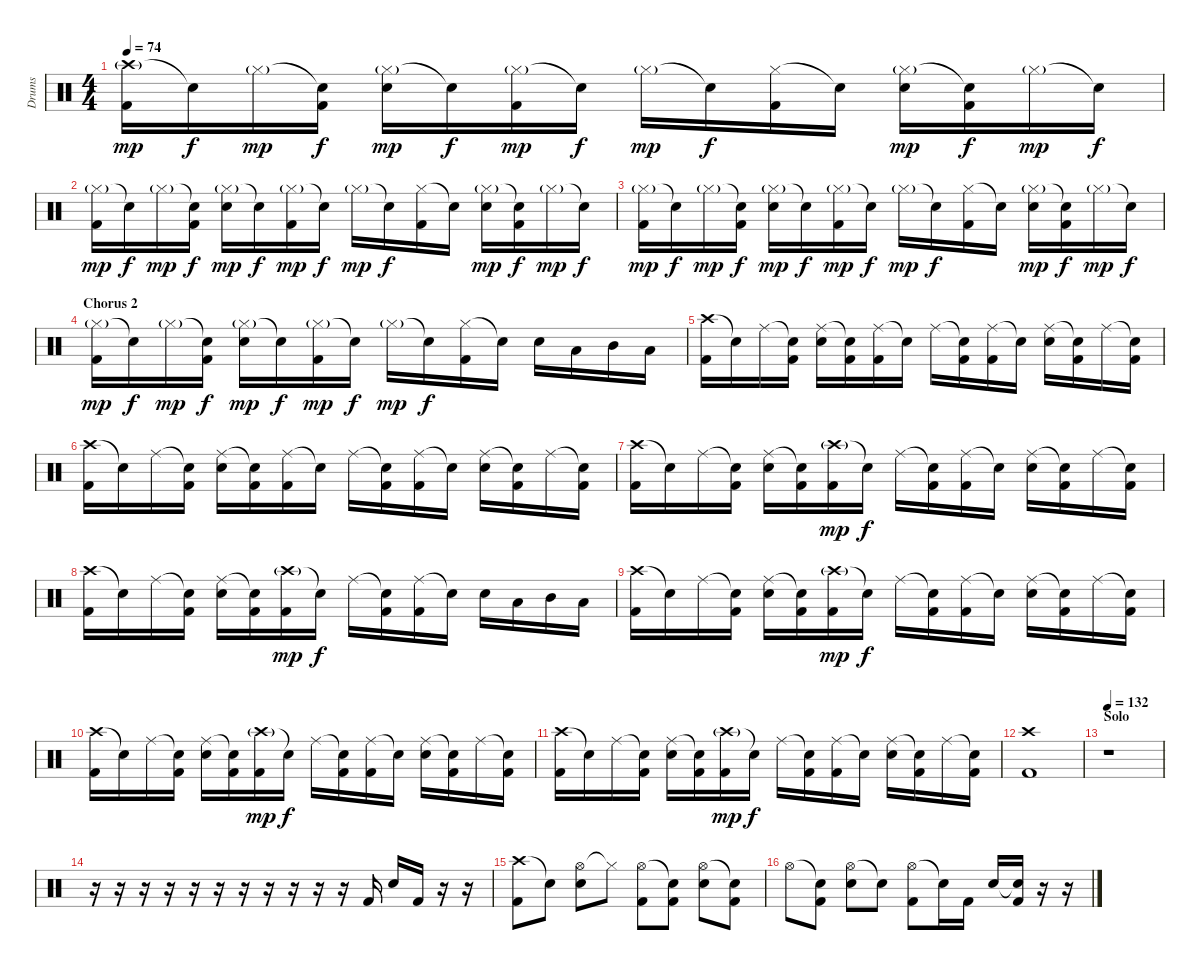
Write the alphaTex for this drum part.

\track ("Drums" "Drums") {instrument percussion}
\staff {score}
\articulation defaults
\ts (4 4)
\tempo 74
\clef neutral
\ks c
("Crash high (hit)"{g} "Kick (hit) 2").16{dy mp} "Snare (hit)"{t}.16{dy f} "Hi-Hat (closed)"{g}.16{dy mp} ("Snare (hit)"{t} "Kick (hit) 2").16{dy f} ("Hi-Hat (closed)"{g} "Electric Snare (hit)").16{dy mp} "Snare (hit)"{t}.16{dy f} ("Hi-Hat (closed)"{g} "Kick (hit) 2").16{dy mp} "Snare (hit)"{t}.16{dy f} "Hi-Hat (closed)"{g}.16{dy mp} "Snare (hit)"{t}.16{dy f} ("Hi-Hat (closed)" "Kick (hit) 2").16 "Snare (hit)"{t}.16 ("Hi-Hat (closed)"{g} "Electric Snare (hit)").16{dy mp} ("Snare (hit)"{t} "Kick (hit) 2").16{dy f} "Hi-Hat (closed)"{g}.16{dy mp} "Snare (hit)"{t}.16{dy f} |
("Hi-Hat (closed)"{g} "Kick (hit) 2").16{dy mp} "Snare (hit)"{t}.16{dy f} "Hi-Hat (closed)"{g}.16{dy mp} ("Snare (hit)"{t} "Kick (hit) 2").16{dy f} ("Hi-Hat (closed)"{g} "Electric Snare (hit)").16{dy mp} "Snare (hit)"{t}.16{dy f} ("Hi-Hat (closed)"{g} "Kick (hit) 2").16{dy mp} "Snare (hit)"{t}.16{dy f} "Hi-Hat (closed)"{g}.16{dy mp} "Snare (hit)"{t}.16{dy f} ("Hi-Hat (closed)" "Kick (hit) 2").16 "Snare (hit)"{t}.16 ("Hi-Hat (closed)"{g} "Electric Snare (hit)").16{dy mp} ("Snare (hit)"{t} "Kick (hit) 2").16{dy f} "Hi-Hat (closed)"{g}.16{dy mp} "Snare (hit)"{t}.16{dy f} |
("Hi-Hat (closed)"{g} "Kick (hit) 2").16{dy mp} "Snare (hit)"{t}.16{dy f} "Hi-Hat (closed)"{g}.16{dy mp} ("Snare (hit)"{t} "Kick (hit) 2").16{dy f} ("Hi-Hat (closed)"{g} "Electric Snare (hit)").16{dy mp} "Snare (hit)"{t}.16{dy f} ("Hi-Hat (closed)"{g} "Kick (hit) 2").16{dy mp} "Snare (hit)"{t}.16{dy f} "Hi-Hat (closed)"{g}.16{dy mp} "Snare (hit)"{t}.16{dy f} ("Hi-Hat (closed)" "Kick (hit) 2").16 "Snare (hit)"{t}.16 ("Hi-Hat (closed)"{g} "Electric Snare (hit)").16{dy mp} ("Snare (hit)"{t} "Kick (hit) 2").16{dy f} "Hi-Hat (closed)"{g}.16{dy mp} "Snare (hit)"{t}.16{dy f} |
\section ("" "Chorus 2")
("Hi-Hat (closed)"{g} "Kick (hit) 2").16{dy mp} "Snare (hit)"{t}.16{dy f} "Hi-Hat (closed)"{g}.16{dy mp} ("Snare (hit)"{t} "Kick (hit) 2").16{dy f} ("Hi-Hat (closed)"{g} "Electric Snare (hit)").16{dy mp} "Snare (hit)"{t}.16{dy f} ("Hi-Hat (closed)"{g} "Kick (hit) 2").16{dy mp} "Snare (hit)"{t}.16{dy f} "Hi-Hat (closed)"{g}.16{dy mp} "Snare (hit)"{t}.16{dy f} ("Hi-Hat (closed)" "Kick (hit) 2").16 "Snare (hit)"{t}.16 "Electric Snare (hit)".16 "Low Tom (hit)".16 "Mid Tom (hit)".16 "Low Floor Tom (hit)".16 |
("Crash high (hit)" "Kick (hit) 2").16 "Snare (hit)"{t}.16 "Ride (middle)".16 ("Snare (hit)"{t} "Kick (hit) 2").16 ("Ride (middle)" "Electric Snare (hit)").16 ("Snare (hit)"{t} "Kick (hit) 2").16 ("Ride (middle)" "Kick (hit) 2").16 "Snare (hit)"{t}.16 "Ride (middle)".16 ("Snare (hit)"{t} "Kick (hit) 2").16 ("Ride (middle)" "Kick (hit) 2").16 "Snare (hit)"{t}.16 ("Ride (middle)" "Electric Snare (hit)").16 ("Snare (hit)"{t} "Kick (hit) 2").16 "Ride (middle)".16 ("Snare (hit)"{t} "Kick (hit) 2").16 |
("Crash high (hit)" "Kick (hit) 2").16 "Snare (hit)"{t}.16 "Ride (middle)".16 ("Snare (hit)"{t} "Kick (hit) 2").16 ("Ride (middle)" "Electric Snare (hit)").16 ("Snare (hit)"{t} "Kick (hit) 2").16 ("Ride (middle)" "Kick (hit) 2").16 "Snare (hit)"{t}.16 "Ride (middle)".16 ("Snare (hit)"{t} "Kick (hit) 2").16 ("Ride (middle)" "Kick (hit) 2").16 "Snare (hit)"{t}.16 ("Ride (middle)" "Electric Snare (hit)").16 ("Snare (hit)"{t} "Kick (hit) 2").16 "Ride (middle)".16 ("Snare (hit)"{t} "Kick (hit) 2").16 |
("Crash high (hit)" "Kick (hit) 2").16 "Snare (hit)"{t}.16 "Ride (middle)".16 ("Snare (hit)"{t} "Kick (hit) 2").16 ("Ride (middle)" "Electric Snare (hit)").16 ("Snare (hit)"{t} "Kick (hit) 2").16 ("Crash high (hit)"{g} "Kick (hit) 2").16{dy mp} "Snare (hit)"{t}.16{dy f} "Ride (middle)".16 ("Snare (hit)"{t} "Kick (hit) 2").16 ("Ride (middle)" "Kick (hit) 2").16 "Snare (hit)"{t}.16 ("Ride (middle)" "Electric Snare (hit)").16 ("Snare (hit)"{t} "Kick (hit) 2").16 "Ride (middle)".16 ("Snare (hit)"{t} "Kick (hit) 2").16 |
("Crash high (hit)" "Kick (hit) 2").16 "Snare (hit)"{t}.16 "Ride (middle)".16 ("Snare (hit)"{t} "Kick (hit) 2").16 ("Ride (middle)" "Electric Snare (hit)").16 ("Snare (hit)"{t} "Kick (hit) 2").16 ("Crash high (hit)"{g} "Kick (hit) 2").16{dy mp} "Snare (hit)"{t}.16{dy f} "Ride (middle)".16 ("Snare (hit)"{t} "Kick (hit) 2").16 ("Ride (middle)" "Kick (hit) 2").16 "Snare (hit)"{t}.16 "Electric Snare (hit)".16 "Low Tom (hit)".16 "Mid Tom (hit)".16 "Low Floor Tom (hit)".16 |
("Crash high (hit)" "Kick (hit) 2").16 "Snare (hit)"{t}.16 "Ride (middle)".16 ("Snare (hit)"{t} "Kick (hit) 2").16 ("Ride (middle)" "Electric Snare (hit)").16 ("Snare (hit)"{t} "Kick (hit) 2").16 ("Crash high (hit)"{g} "Kick (hit) 2").16{dy mp} "Snare (hit)"{t}.16{dy f} "Ride (middle)".16 ("Snare (hit)"{t} "Kick (hit) 2").16 ("Ride (middle)" "Kick (hit) 2").16 "Snare (hit)"{t}.16 ("Ride (middle)" "Electric Snare (hit)").16 ("Snare (hit)"{t} "Kick (hit) 2").16 "Ride (middle)".16 ("Snare (hit)"{t} "Kick (hit) 2").16 |
("Crash high (hit)" "Kick (hit) 2").16 "Snare (hit)"{t}.16 "Ride (middle)".16 ("Snare (hit)"{t} "Kick (hit) 2").16 ("Ride (middle)" "Electric Snare (hit)").16 ("Snare (hit)"{t} "Kick (hit) 2").16 ("Crash high (hit)"{g} "Kick (hit) 2").16{dy mp} "Snare (hit)"{t}.16{dy f} "Ride (middle)".16 ("Snare (hit)"{t} "Kick (hit) 2").16 ("Ride (middle)" "Kick (hit) 2").16 "Snare (hit)"{t}.16 ("Ride (middle)" "Electric Snare (hit)").16 ("Snare (hit)"{t} "Kick (hit) 2").16 "Ride (middle)".16 ("Snare (hit)"{t} "Kick (hit) 2").16 |
("Crash high (hit)" "Kick (hit) 2").16 "Snare (hit)"{t}.16 "Ride (middle)".16 ("Snare (hit)"{t} "Kick (hit) 2").16 ("Ride (middle)" "Electric Snare (hit)").16 ("Snare (hit)"{t} "Kick (hit) 2").16 ("Crash high (hit)"{g} "Kick (hit) 2").16{dy mp} "Snare (hit)"{t}.16{dy f} "Ride (middle)".16 ("Snare (hit)"{t} "Kick (hit) 2").16 ("Ride (middle)" "Kick (hit) 2").16 "Snare (hit)"{t}.16 ("Ride (middle)" "Electric Snare (hit)").16 ("Snare (hit)"{t} "Kick (hit) 2").16 "Ride (middle)".16 ("Snare (hit)"{t} "Kick (hit) 2").16 |
("Crash high (hit)" "Kick (hit) 2").1 |
\section ("" "Solo")
\tempo 132
r.1 |
r.16 r.16 r.16 r.16 r.16 r.16 r.16 r.16 r.16 r.16 r.16 "Kick (hit) 2".16 "Electric Snare (hit)".16 "Kick (hit) 2".16 r.16 r.16 |
("Crash high (hit)" "Kick (hit) 2").8 "Snare (hit)"{t}.8 ("Hi-Hat (open)" "Electric Snare (hit)").8 "Hi-Hat (closed)"{t}.8 ("Hi-Hat (open)" "Kick (hit) 2").8 ("Snare (hit)"{t} "Kick (hit) 2").8 ("Hi-Hat (open)" "Electric Snare (hit)").8 ("Snare (hit)"{t} "Kick (hit) 2").8 |
"Hi-Hat (open)".8 ("Snare (hit)"{t} "Kick (hit) 2").8 ("Hi-Hat (open)" "Electric Snare (hit)").8 "Snare (hit)"{t}.8 ("Hi-Hat (open)" "Kick (hit) 2").8 "Snare (hit)"{t}.16 "Kick (hit) 2".16 "Electric Snare (hit)".16 ("Snare (hit)"{t} "Kick (hit) 2").16 r.16 r.16
